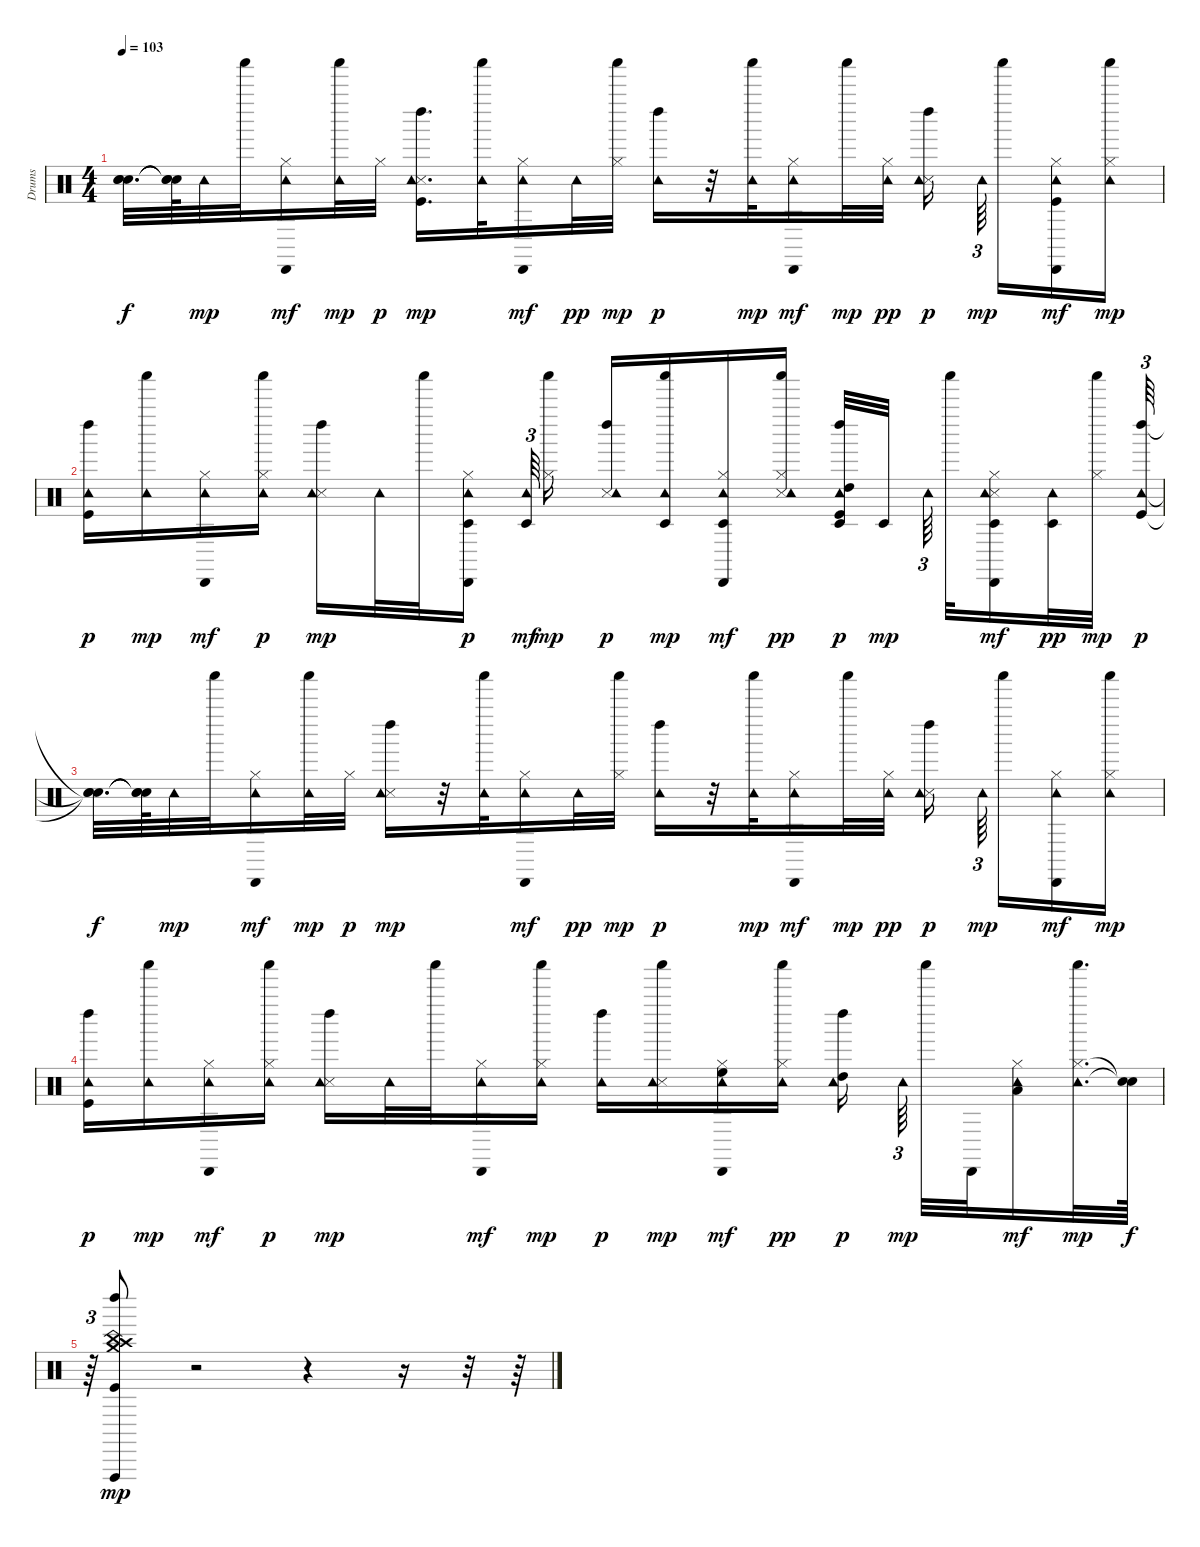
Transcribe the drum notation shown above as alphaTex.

\track ("Drums" "Drums") {instrument percussion}
\staff {score}
\articulation defaults
\ts (4 4)
\tempo 103
\clef neutral
\ks c
("Snare (hit)"{t} "Snare (hit)"{t} "Snare (hit)"{t}).32{d dy f} ("Snare (hit)"{t} "Snare (hit)"{t} "Snare (hit)"{t}).64 "Tambourine (hit)".32{dy mp} "Shaker (hit)".32 ("Cabasa (hit)" "Hi-Hat (closed)" "Tambourine (hit)").16{dy mf} ("Tambourine (hit)" "Shaker (hit)").32{dy mp} "Hi-Hat (closed)".32{dy p} ("Left Maraca (hit)" "Kick (hit)" "Snare (side stick) 3" "Tambourine (hit)").16{d dy mp} ("Tambourine (hit)" "Shaker (hit)").32 ("Cabasa (hit)" "Hi-Hat (closed)" "Tambourine (hit)").16{dy mf} "Tambourine (hit)".32{dy pp} ("Hi-Hat (closed)" "Shaker (hit)").32{dy mp} ("Left Maraca (hit)" "Tambourine (hit)").16{dy p} r.32 ("Tambourine (hit)" "Shaker (hit)").32{dy mp} ("Cabasa (hit)" "Hi-Hat (closed)" "Tambourine (hit)").16{dy mf} "Shaker (hit)".32{dy mp} ("Hi-Hat (closed)" "Tambourine (hit)").32{dy pp} ("Left Maraca (hit)" "Snare (side stick) 3" "Tambourine (hit)").16{dy p beam splitsecondary} "Tambourine (hit)".64{tu (3 2) dy mp beam splitsecondary} "Shaker (hit)".16 ("Cabasa (hit)" "Kick (hit)" "Hi-Hat (closed)" "Tambourine (hit)").16{dy mf} ("Tambourine (hit)" "Hi-Hat (closed)" "Shaker (hit)").16{dy mp} |
("Left Maraca (hit)" "Kick (hit)" "Tambourine (hit)").16{dy p} ("Tambourine (hit)" "Shaker (hit)").16{dy mp} ("Cabasa (hit)" "Hi-Hat (closed)" "Tambourine (hit)").16{dy mf} ("Tambourine (hit)" "Shaker (hit)" "Hi-Hat (closed)").16{dy p} ("Left Maraca (hit)" "Snare (side stick) 3" "Tambourine (hit)").16{dy mp} "Tambourine (hit)".32 "Shaker (hit)".32 ("Cabasa (hit)" "Hi-Hat (closed)" "Tambourine (hit)" "Timbale low (hit)").16{dy p beam splitsecondary} ("Tambourine (hit)" "Timbale low (hit)").64{tu (3 2) dy mf} ("Hi-Hat (closed)" "Shaker (hit)").16{dy mp} ("Left Maraca (hit)" "Snare (side stick) 3" "Tambourine (hit)").16{dy p} ("Tambourine (hit)" "Timbale low (hit)" "Shaker (hit)").16{dy mp} ("Cabasa (hit)" "Hi-Hat (closed)" "Timbale low (hit)" "Tambourine (hit)").16{dy mf} ("Shaker (hit)" "Snare (side stick) 3" "Hi-Hat (closed)" "Tambourine (hit)").16{dy pp} ("Timbale low (hit)" "Left Maraca (hit)" "Kick (hit)" "High Tom (hit)" "Tambourine (hit)").32{dy p} "Timbale low (hit)".32{dy mp beam splitsecondary} "Tambourine (hit)".64{tu (3 2) beam splitsecondary} "Shaker (hit)".32 ("Cabasa (hit)" "Timbale low (hit)" "Snare (side stick) 3" "Hi-Hat (closed)" "Tambourine (hit)").16{dy mf} ("Timbale low (hit)" "Tambourine (hit)").32{dy pp} ("Hi-Hat (closed)" "Shaker (hit)").32{dy mp beam splitsecondary} ("Left Maraca (hit)" "Kick (hit)" "Tambourine (hit)").64{tu (3 2) dy p} |
("Snare (hit)"{t} "Snare (hit)"{t} "Snare (hit)"{t}).32{d dy f} ("Snare (hit)"{t} "Snare (hit)"{t} "Snare (hit)"{t}).64 "Tambourine (hit)".32{dy mp} "Shaker (hit)".32 ("Cabasa (hit)" "Hi-Hat (closed)" "Tambourine (hit)").16{dy mf} ("Tambourine (hit)" "Shaker (hit)").32{dy mp} "Hi-Hat (closed)".32{dy p} ("Left Maraca (hit)" "Snare (side stick) 3" "Tambourine (hit)").16{dy mp} r.32 ("Tambourine (hit)" "Shaker (hit)").32 ("Cabasa (hit)" "Hi-Hat (closed)" "Tambourine (hit)").16{dy mf} "Tambourine (hit)".32{dy pp} ("Hi-Hat (closed)" "Shaker (hit)").32{dy mp} ("Left Maraca (hit)" "Tambourine (hit)").16{dy p} r.32 ("Tambourine (hit)" "Shaker (hit)").32{dy mp} ("Cabasa (hit)" "Hi-Hat (closed)" "Tambourine (hit)").16{dy mf} "Shaker (hit)".32{dy mp} ("Hi-Hat (closed)" "Tambourine (hit)").32{dy pp} ("Left Maraca (hit)" "Snare (side stick) 3" "Tambourine (hit)").16{dy p beam splitsecondary} "Tambourine (hit)".64{tu (3 2) dy mp beam splitsecondary} "Shaker (hit)".16 ("Cabasa (hit)" "Hi-Hat (closed)" "Tambourine (hit)").16{dy mf} ("Tambourine (hit)" "Hi-Hat (closed)" "Shaker (hit)").16{dy mp} |
("Left Maraca (hit)" "Kick (hit)" "Tambourine (hit)").16{dy p} ("Tambourine (hit)" "Shaker (hit)").16{dy mp} ("Cabasa (hit)" "Hi-Hat (closed)" "Tambourine (hit)").16{dy mf} ("Tambourine (hit)" "Shaker (hit)" "Hi-Hat (closed)").16{dy p} ("Left Maraca (hit)" "Snare (side stick) 3" "Tambourine (hit)").16{dy mp} "Tambourine (hit)".32 "Shaker (hit)".32 ("Cabasa (hit)" "Hi-Hat (closed)" "Tambourine (hit)").16{dy mf} ("Tambourine (hit)" "Hi-Hat (closed)" "Shaker (hit)").16{dy mp} ("Left Maraca (hit)" "Tambourine (hit)").16{dy p} ("Snare (side stick) 3" "Tambourine (hit)" "Shaker (hit)").16{dy mp} ("Cabasa (hit)" "High Floor Tom (hit)" "Hi-Hat (closed)" "Tambourine (hit)").16{dy mf} ("Shaker (hit)" "Hi-Hat (closed)" "Tambourine (hit)").16{dy pp} ("Left Maraca (hit)" "High Tom (hit)" "Tambourine (hit)").16{dy p beam splitsecondary} "Tambourine (hit)".64{tu (3 2) dy mp beam splitsecondary} "Shaker (hit)".32 "Cabasa (hit)".32 ("Low Tom (hit)" "Hi-Hat (closed)" "Tambourine (hit)").16{dy mf} ("Tambourine (hit)" "Hi-Hat (closed)" "Shaker (hit)").32{d dy mp} ("Snare (hit)"{t} "Snare (hit)"{t}).64{dy f} |
r.64{tu (3 2)} ("Left Maraca (hit)" "Crash medium (hit)" "Crash high (hit)" "China (hit)" "Vibraslap (hit)" "Kick (hit)").8{dy mp} r.2 r.4 r.16 r.32 r.64
